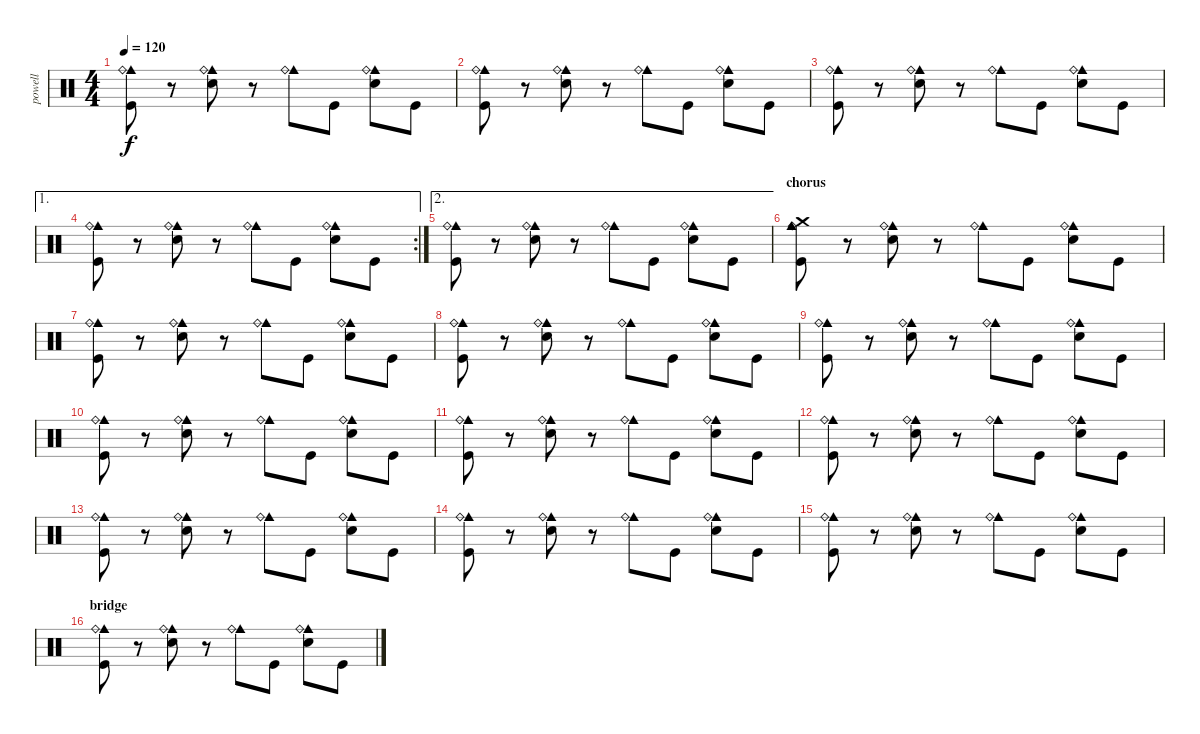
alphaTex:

\track ("powell" "powell") {instrument percussion}
\staff {score}
\articulation defaults
\ts (4 4)
\tempo 120
\clef neutral
\ks c
("Cowbell medium (hit)" "Ride (bell)" "Kick (hit)").8{dy f} r.8 ("Cowbell medium (hit)" "Ride (bell)" "Snare (hit) 2").8{volume 11} r.8 ("Cowbell medium (hit)" "Ride (bell)").8 "Kick (hit)".8 ("Cowbell medium (hit)" "Ride (bell)" "Snare (hit) 2").8 "Kick (hit)".8 |
("Cowbell medium (hit)" "Ride (bell)" "Kick (hit)").8 r.8 ("Cowbell medium (hit)" "Ride (bell)" "Snare (hit) 2").8{volume 11} r.8 ("Cowbell medium (hit)" "Ride (bell)").8 "Kick (hit)".8 ("Cowbell medium (hit)" "Ride (bell)" "Snare (hit) 2").8 "Kick (hit)".8 |
("Cowbell medium (hit)" "Ride (bell)" "Kick (hit)").8 r.8 ("Cowbell medium (hit)" "Ride (bell)" "Snare (hit) 2").8{volume 11} r.8 ("Cowbell medium (hit)" "Ride (bell)").8 "Kick (hit)".8 ("Cowbell medium (hit)" "Ride (bell)" "Snare (hit) 2").8 "Kick (hit)".8 |
\ae 1
\rc 2
("Cowbell medium (hit)" "Ride (bell)" "Kick (hit)").8 r.8 ("Cowbell medium (hit)" "Ride (bell)" "Snare (hit) 2").8{volume 11} r.8 ("Cowbell medium (hit)" "Ride (bell)").8 "Kick (hit)".8 ("Cowbell medium (hit)" "Ride (bell)" "Snare (hit) 2").8 "Kick (hit)".8 |
\ae 2
("Cowbell medium (hit)" "Ride (bell)" "Kick (hit)").8 r.8 ("Cowbell medium (hit)" "Ride (bell)" "Snare (hit) 2").8{volume 11} r.8 ("Cowbell medium (hit)" "Ride (bell)").8 "Kick (hit)".8 ("Cowbell medium (hit)" "Ride (bell)" "Snare (hit) 2").8 "Kick (hit)".8 |
\section ("" "chorus")
("Cowbell medium (hit)" "Ride (bell)" "Crash medium (hit)" "Kick (hit)").8 r.8 ("Cowbell medium (hit)" "Ride (bell)" "Snare (hit) 2").8{volume 11} r.8 ("Cowbell medium (hit)" "Ride (bell)").8 "Kick (hit)".8 ("Cowbell medium (hit)" "Ride (bell)" "Snare (hit) 2").8 "Kick (hit)".8 |
("Cowbell medium (hit)" "Ride (bell)" "Kick (hit)").8 r.8 ("Cowbell medium (hit)" "Ride (bell)" "Snare (hit) 2").8{volume 11} r.8 ("Cowbell medium (hit)" "Ride (bell)").8 "Kick (hit)".8 ("Cowbell medium (hit)" "Ride (bell)" "Snare (hit) 2").8 "Kick (hit)".8 |
("Cowbell medium (hit)" "Ride (bell)" "Kick (hit)").8 r.8 ("Cowbell medium (hit)" "Ride (bell)" "Snare (hit) 2").8{volume 11} r.8 ("Cowbell medium (hit)" "Ride (bell)").8 "Kick (hit)".8 ("Cowbell medium (hit)" "Ride (bell)" "Snare (hit) 2").8 "Kick (hit)".8 |
("Cowbell medium (hit)" "Ride (bell)" "Kick (hit)").8 r.8 ("Cowbell medium (hit)" "Ride (bell)" "Snare (hit) 2").8{volume 11} r.8 ("Cowbell medium (hit)" "Ride (bell)").8 "Kick (hit)".8 ("Cowbell medium (hit)" "Ride (bell)" "Snare (hit) 2").8 "Kick (hit)".8 |
("Cowbell medium (hit)" "Ride (bell)" "Kick (hit)").8 r.8 ("Cowbell medium (hit)" "Ride (bell)" "Snare (hit) 2").8{volume 11} r.8 ("Cowbell medium (hit)" "Ride (bell)").8 "Kick (hit)".8 ("Cowbell medium (hit)" "Ride (bell)" "Snare (hit) 2").8 "Kick (hit)".8 |
("Cowbell medium (hit)" "Ride (bell)" "Kick (hit)").8 r.8 ("Cowbell medium (hit)" "Ride (bell)" "Snare (hit) 2").8{volume 11} r.8 ("Cowbell medium (hit)" "Ride (bell)").8 "Kick (hit)".8 ("Cowbell medium (hit)" "Ride (bell)" "Snare (hit) 2").8 "Kick (hit)".8 |
("Cowbell medium (hit)" "Ride (bell)" "Kick (hit)").8 r.8 ("Cowbell medium (hit)" "Ride (bell)" "Snare (hit) 2").8{volume 11} r.8 ("Cowbell medium (hit)" "Ride (bell)").8 "Kick (hit)".8 ("Cowbell medium (hit)" "Ride (bell)" "Snare (hit) 2").8 "Kick (hit)".8 |
("Cowbell medium (hit)" "Ride (bell)" "Kick (hit)").8 r.8 ("Cowbell medium (hit)" "Ride (bell)" "Snare (hit) 2").8{volume 11} r.8 ("Cowbell medium (hit)" "Ride (bell)").8 "Kick (hit)".8 ("Cowbell medium (hit)" "Ride (bell)" "Snare (hit) 2").8 "Kick (hit)".8 |
("Cowbell medium (hit)" "Ride (bell)" "Kick (hit)").8 r.8 ("Cowbell medium (hit)" "Ride (bell)" "Snare (hit) 2").8{volume 11} r.8 ("Cowbell medium (hit)" "Ride (bell)").8 "Kick (hit)".8 ("Cowbell medium (hit)" "Ride (bell)" "Snare (hit) 2").8 "Kick (hit)".8 |
("Cowbell medium (hit)" "Ride (bell)" "Kick (hit)").8 r.8 ("Cowbell medium (hit)" "Ride (bell)" "Snare (hit) 2").8{volume 11} r.8 ("Cowbell medium (hit)" "Ride (bell)").8 "Kick (hit)".8 ("Cowbell medium (hit)" "Ride (bell)" "Snare (hit) 2").8 "Kick (hit)".8 |
\section ("" "bridge")
("Cowbell medium (hit)" "Ride (bell)" "Kick (hit)").8 r.8 ("Cowbell medium (hit)" "Ride (bell)" "Snare (hit) 2").8{volume 11} r.8 ("Cowbell medium (hit)" "Ride (bell)").8 "Kick (hit)".8 ("Cowbell medium (hit)" "Ride (bell)" "Snare (hit) 2").8 "Kick (hit)".8
